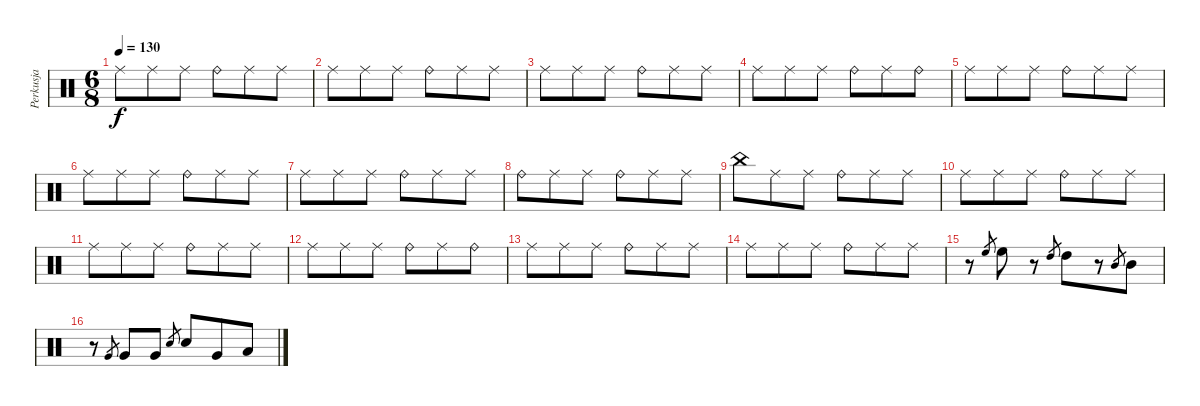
\track ("Perkusja" "Perkusja") {instrument percussion}
\staff {score}
\articulation defaults
\ts (6 8)
\tempo 130
\clef neutral
\ks c "Ride (middle)".8{dy f} "Ride (middle)".8 "Ride (middle)".8 "Ride (bell)".8 "Ride (middle)".8 "Ride (middle)".8
|
"Ride (middle)".8 "Ride (middle)".8 "Ride (middle)".8 "Ride (bell)".8 "Ride (middle)".8 "Ride (middle)".8 |
"Ride (middle)".8 "Ride (middle)".8 "Ride (middle)".8 "Ride (bell)".8 "Ride (middle)".8 "Ride (middle)".8 |
"Ride (middle)".8 "Ride (middle)".8 "Ride (middle)".8 "Ride (bell)".8 "Ride (middle)".8 "Ride (bell)".8 |
"Ride (middle)".8 "Ride (middle)".8 "Ride (middle)".8 "Ride (bell)".8 "Ride (middle)".8 "Ride (middle)".8 |
"Ride (middle)".8 "Ride (middle)".8 "Ride (middle)".8 "Ride (bell)".8 "Ride (middle)".8 "Ride (middle)".8 |
"Ride (middle)".8 "Ride (middle)".8 "Ride (middle)".8 "Ride (bell)".8 "Ride (middle)".8 "Ride (middle)".8 |
"Ride (bell)".8 "Ride (middle)".8 "Ride (middle)".8 "Ride (bell)".8 "Ride (middle)".8 "Ride (middle)".8 |
"China (hit)".8 "Ride (middle)".8 "Ride (middle)".8 "Ride (bell)".8 "Ride (middle)".8 "Ride (middle)".8 |
"Ride (middle)".8 "Ride (middle)".8 "Ride (middle)".8 "Ride (bell)".8 "Ride (middle)".8 "Ride (middle)".8 |
"Ride (middle)".8 "Ride (middle)".8 "Ride (middle)".8 "Ride (bell)".8 "Ride (middle)".8 "Ride (middle)".8 |
"Ride (middle)".8 "Ride (middle)".8 "Ride (middle)".8 "Ride (bell)".8 "Ride (middle)".8 "Ride (bell)".8 |
"Ride (middle)".8 "Ride (middle)".8 "Ride (middle)".8 "Ride (bell)".8 "Ride (middle)".8 "Ride (middle)".8 |
"Ride (middle)".8 "Ride (middle)".8 "Ride (middle)".8 "Ride (bell)".8 "Ride (middle)".8 "Ride (middle)".8 |
r.8 "High Floor Tom (hit)".8{gr} "High Floor Tom (hit)".8 r.8 "High Tom (hit)".8{gr} "High Tom (hit)".8 r.8 "Mid Tom (hit)".8{gr} "Mid Tom (hit)".8 |
r.8 "Very Low Tom (hit)".8{gr} "Very Low Tom (hit)".8 "Very Low Tom (hit)".8 "Electric Snare (hit)".8{gr} "Electric Snare (hit)".8 "Very Low Tom (hit)".8 "Low Floor Tom (hit)".8
